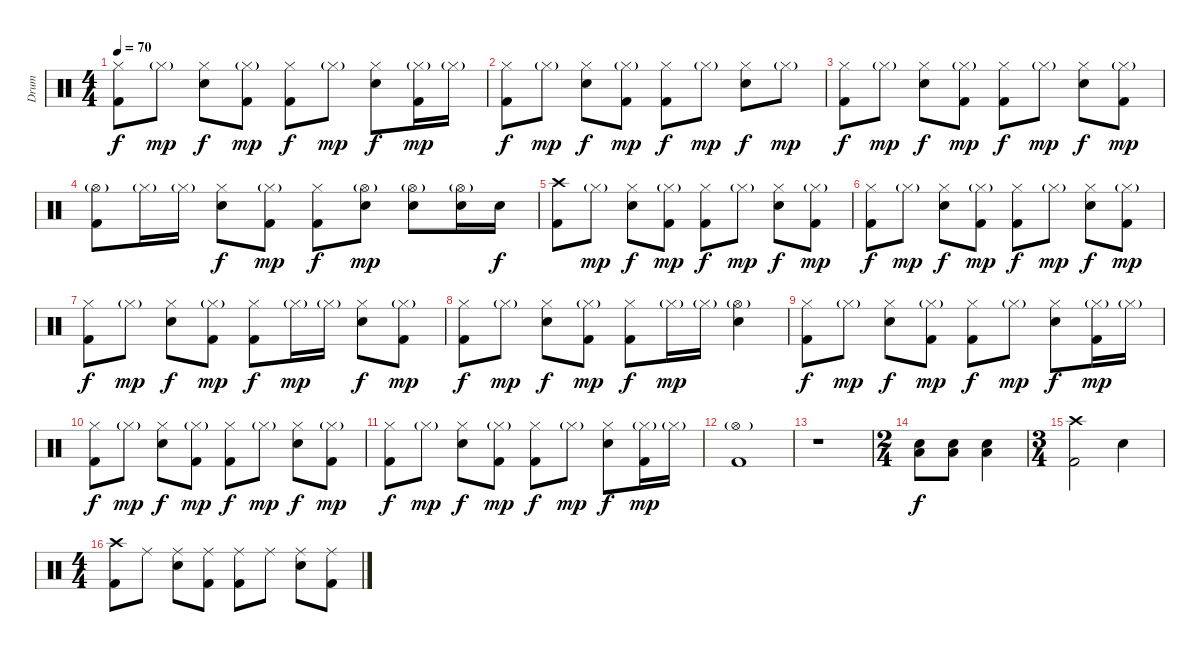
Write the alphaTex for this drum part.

\track ("Drum" "Drum") {instrument percussion}
\staff {score}
\articulation defaults
\ts (4 4)
\tempo 70
\clef neutral
\ks c
("Hi-Hat (closed)" "Kick (hit) 2").8{dy f} "Hi-Hat (closed)"{g}.8{dy mp} ("Hi-Hat (closed)" "Snare (hit) 2").8{dy f} ("Hi-Hat (closed)"{g} "Kick (hit) 2").8{dy mp} ("Hi-Hat (closed)" "Kick (hit) 2").8{dy f} "Hi-Hat (closed)"{g}.8{dy mp} ("Hi-Hat (closed)" "Snare (hit) 2").8{dy f} ("Hi-Hat (closed)"{g} "Kick (hit) 2").16{dy mp} "Hi-Hat (closed)"{g}.16 |
("Hi-Hat (closed)" "Kick (hit) 2").8{dy f} "Hi-Hat (closed)"{g}.8{dy mp} ("Hi-Hat (closed)" "Snare (hit) 2").8{dy f} ("Hi-Hat (closed)"{g} "Kick (hit) 2").8{dy mp} ("Hi-Hat (closed)" "Kick (hit) 2").8{dy f} "Hi-Hat (closed)"{g}.8{dy mp} ("Hi-Hat (closed)" "Snare (hit) 2").8{dy f} "Hi-Hat (closed)"{g}.8{dy mp} |
("Hi-Hat (closed)" "Kick (hit) 2").8{dy f} "Hi-Hat (closed)"{g}.8{dy mp} ("Hi-Hat (closed)" "Snare (hit) 2").8{dy f} ("Hi-Hat (closed)"{g} "Kick (hit) 2").8{dy mp} ("Hi-Hat (closed)" "Kick (hit) 2").8{dy f} "Hi-Hat (closed)"{g}.8{dy mp} ("Hi-Hat (closed)" "Snare (hit) 2").8{dy f} ("Hi-Hat (closed)"{g} "Kick (hit) 2").8{dy mp} |
("Hi-Hat (open)"{g} "Kick (hit) 2").8 "Hi-Hat (closed)"{g}.16 "Hi-Hat (closed)"{g}.16 ("Hi-Hat (closed)" "Snare (hit) 2").8{dy f} ("Hi-Hat (closed)"{g} "Kick (hit) 2").8{dy mp} ("Hi-Hat (closed)" "Kick (hit) 2").8{dy f} ("Hi-Hat (open)"{g} "Snare (hit) 2").8{dy mp} ("Hi-Hat (open)"{g} "Snare (hit) 2").8 ("Hi-Hat (open)"{g} "Snare (hit) 2").16 "Snare (hit) 2".16{dy f} |
("Crash high (hit)" "Kick (hit) 2").8 "Hi-Hat (closed)"{g}.8{dy mp} ("Hi-Hat (closed)" "Snare (hit) 2").8{dy f} ("Hi-Hat (closed)"{g} "Kick (hit) 2").8{dy mp} ("Hi-Hat (closed)" "Kick (hit) 2").8{dy f} "Hi-Hat (closed)"{g}.8{dy mp} ("Hi-Hat (closed)" "Snare (hit) 2").8{dy f} ("Hi-Hat (closed)"{g} "Kick (hit) 2").8{dy mp} |
("Hi-Hat (closed)" "Kick (hit) 2").8{dy f} "Hi-Hat (closed)"{g}.8{dy mp} ("Hi-Hat (closed)" "Snare (hit) 2").8{dy f} ("Hi-Hat (closed)"{g} "Kick (hit) 2").8{dy mp} ("Hi-Hat (closed)" "Kick (hit) 2").8{dy f} "Hi-Hat (closed)"{g}.8{dy mp} ("Hi-Hat (closed)" "Snare (hit) 2").8{dy f} ("Hi-Hat (closed)"{g} "Kick (hit) 2").8{dy mp} |
("Hi-Hat (closed)" "Kick (hit) 2").8{dy f} "Hi-Hat (closed)"{g}.8{dy mp} ("Hi-Hat (closed)" "Snare (hit) 2").8{dy f} ("Hi-Hat (closed)"{g} "Kick (hit) 2").8{dy mp} ("Hi-Hat (closed)" "Kick (hit) 2").8{dy f} "Hi-Hat (closed)"{g}.16{dy mp} "Hi-Hat (closed)"{g}.16 ("Hi-Hat (closed)" "Snare (hit) 2").8{dy f} ("Hi-Hat (closed)"{g} "Kick (hit) 2").8{dy mp} |
("Hi-Hat (closed)" "Kick (hit) 2").8{dy f} "Hi-Hat (closed)"{g}.8{dy mp} ("Hi-Hat (closed)" "Snare (hit) 2").8{dy f} ("Hi-Hat (closed)"{g} "Kick (hit) 2").8{dy mp} ("Hi-Hat (closed)" "Kick (hit) 2").8{dy f} "Hi-Hat (closed)"{g}.16{dy mp} "Hi-Hat (closed)"{g}.16 ("Hi-Hat (open)"{g} "Snare (hit) 2").4 |
("Hi-Hat (closed)" "Kick (hit) 2").8{dy f} "Hi-Hat (closed)"{g}.8{dy mp} ("Hi-Hat (closed)" "Snare (hit) 2").8{dy f} ("Hi-Hat (closed)"{g} "Kick (hit) 2").8{dy mp} ("Hi-Hat (closed)" "Kick (hit) 2").8{dy f} "Hi-Hat (closed)"{g}.8{dy mp} ("Hi-Hat (closed)" "Snare (hit) 2").8{dy f} ("Hi-Hat (closed)"{g} "Kick (hit) 2").16{dy mp} "Hi-Hat (closed)"{g}.16 |
("Hi-Hat (closed)" "Kick (hit) 2").8{dy f} "Hi-Hat (closed)"{g}.8{dy mp} ("Hi-Hat (closed)" "Snare (hit) 2").8{dy f} ("Hi-Hat (closed)"{g} "Kick (hit) 2").8{dy mp} ("Hi-Hat (closed)" "Kick (hit) 2").8{dy f} "Hi-Hat (closed)"{g}.8{dy mp} ("Hi-Hat (closed)" "Snare (hit) 2").8{dy f} ("Hi-Hat (closed)"{g} "Kick (hit) 2").8{dy mp} |
("Hi-Hat (closed)" "Kick (hit) 2").8{dy f} "Hi-Hat (closed)"{g}.8{dy mp} ("Hi-Hat (closed)" "Snare (hit) 2").8{dy f} ("Hi-Hat (closed)"{g} "Kick (hit) 2").8{dy mp} ("Hi-Hat (closed)" "Kick (hit) 2").8{dy f} "Hi-Hat (closed)"{g}.8{dy mp} ("Hi-Hat (closed)" "Snare (hit) 2").8{dy f} ("Hi-Hat (closed)"{g} "Kick (hit) 2").16{dy mp} "Hi-Hat (closed)"{g}.16 |
("Hi-Hat (open)"{g} "Kick (hit) 2").1 |
r.1 |
\ts (2 4)
("Low Floor Tom (hit)" "Snare (hit) 2").8{dy f} ("Low Floor Tom (hit)" "Snare (hit) 2").8 ("Low Floor Tom (hit)" "Snare (hit) 2").4 |
\ts (3 4)
("Crash high (hit)" "Kick (hit) 2").2 "Snare (hit) 2".4 |
\ts (4 4)
("Crash high (hit)" "Kick (hit) 2").8 "Ride (middle)".8 ("Ride (middle)" "Snare (hit) 2").8 ("Ride (middle)" "Kick (hit) 2").8 ("Ride (middle)" "Kick (hit) 2").8 "Ride (middle)".8 ("Ride (middle)" "Snare (hit) 2").8 ("Ride (middle)" "Kick (hit) 2").8
